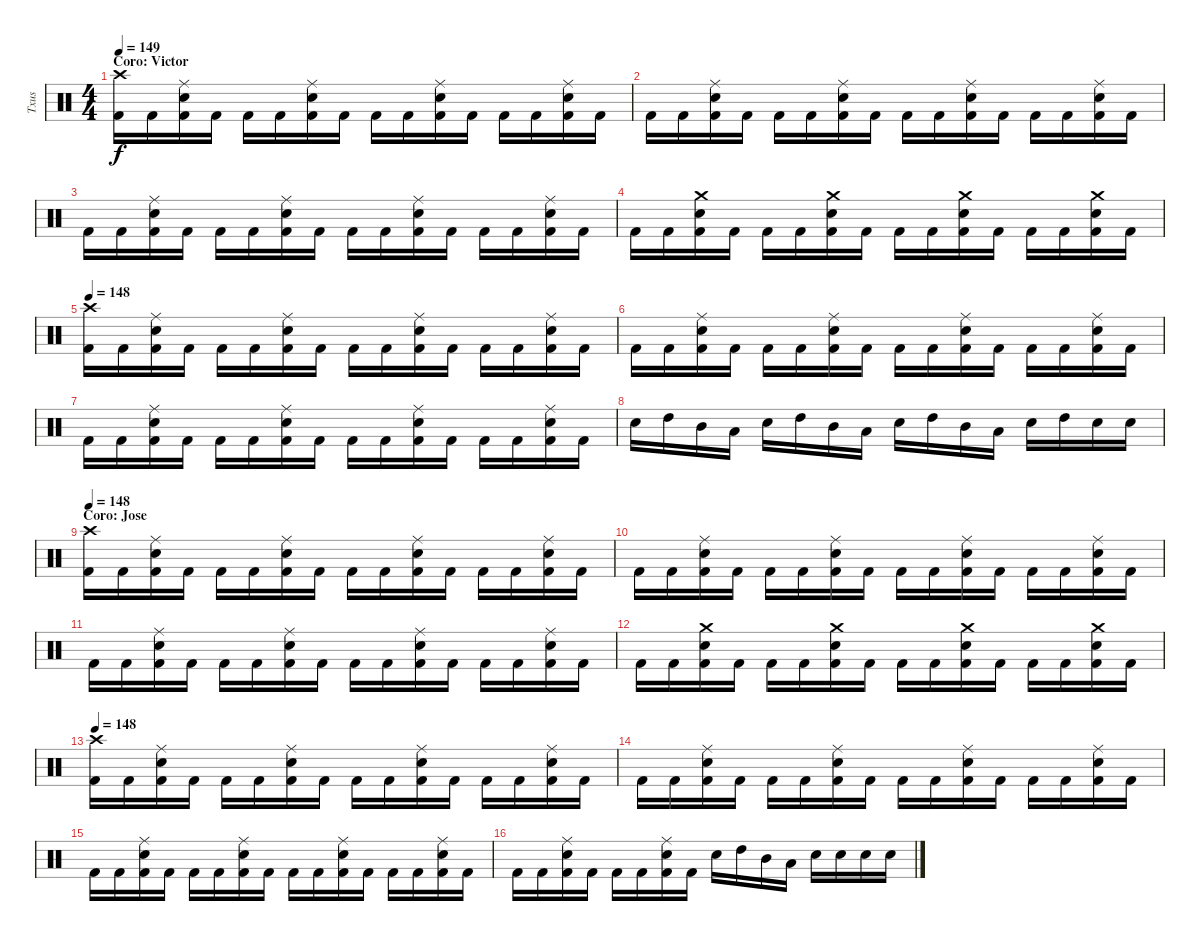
\track ("Txus" "Txus") {instrument percussion}
\staff {score}
\articulation defaults
\ts (4 4)
\section ("" "Coro: Victor")
\tempo 149
\clef neutral
\ks c
("Kick (hit) 2" "Crash high (hit)").16{dy f} "Kick (hit) 2".16 ("Kick (hit) 2" "Electric Snare (hit)" "Ride (middle)").16 "Kick (hit) 2".16 "Kick (hit) 2".16 "Kick (hit) 2".16 ("Kick (hit) 2" "Electric Snare (hit)" "Ride (middle)").16 "Kick (hit) 2".16 "Kick (hit) 2".16 "Kick (hit) 2".16 ("Kick (hit) 2" "Electric Snare (hit)" "Ride (middle)").16 "Kick (hit) 2".16 "Kick (hit) 2".16 "Kick (hit) 2".16 ("Kick (hit) 2" "Electric Snare (hit)" "Ride (middle)").16 "Kick (hit) 2".16 |
"Kick (hit) 2".16 "Kick (hit) 2".16 ("Kick (hit) 2" "Electric Snare (hit)" "Ride (middle)").16 "Kick (hit) 2".16 "Kick (hit) 2".16 "Kick (hit) 2".16 ("Kick (hit) 2" "Electric Snare (hit)" "Ride (middle)").16 "Kick (hit) 2".16 "Kick (hit) 2".16 "Kick (hit) 2".16 ("Kick (hit) 2" "Electric Snare (hit)" "Ride (middle)").16 "Kick (hit) 2".16 "Kick (hit) 2".16 "Kick (hit) 2".16 ("Kick (hit) 2" "Electric Snare (hit)" "Ride (middle)").16 "Kick (hit) 2".16 |
"Kick (hit) 2".16 "Kick (hit) 2".16 ("Kick (hit) 2" "Electric Snare (hit)" "Ride (middle)").16 "Kick (hit) 2".16 "Kick (hit) 2".16 "Kick (hit) 2".16 ("Kick (hit) 2" "Electric Snare (hit)" "Ride (middle)").16 "Kick (hit) 2".16 "Kick (hit) 2".16 "Kick (hit) 2".16 ("Kick (hit) 2" "Electric Snare (hit)" "Ride (middle)").16 "Kick (hit) 2".16 "Kick (hit) 2".16 "Kick (hit) 2".16 ("Kick (hit) 2" "Electric Snare (hit)" "Ride (middle)").16 "Kick (hit) 2".16 |
"Kick (hit) 2".16 "Kick (hit) 2".16 ("Kick (hit) 2" "Electric Snare (hit)" "Crash medium (hit)").16 "Kick (hit) 2".16 "Kick (hit) 2".16 "Kick (hit) 2".16 ("Kick (hit) 2" "Electric Snare (hit)" "Crash medium (hit)").16 "Kick (hit) 2".16 "Kick (hit) 2".16 "Kick (hit) 2".16 ("Kick (hit) 2" "Electric Snare (hit)" "Crash medium (hit)").16 "Kick (hit) 2".16 "Kick (hit) 2".16 "Kick (hit) 2".16 ("Kick (hit) 2" "Electric Snare (hit)" "Crash medium (hit)").16 "Kick (hit) 2".16 |
\tempo 148
("Kick (hit) 2" "Crash high (hit)").16 "Kick (hit) 2".16 ("Kick (hit) 2" "Electric Snare (hit)" "Ride (middle)").16 "Kick (hit) 2".16 "Kick (hit) 2".16 "Kick (hit) 2".16 ("Kick (hit) 2" "Electric Snare (hit)" "Ride (middle)").16 "Kick (hit) 2".16 "Kick (hit) 2".16 "Kick (hit) 2".16 ("Kick (hit) 2" "Electric Snare (hit)" "Ride (middle)").16 "Kick (hit) 2".16 "Kick (hit) 2".16 "Kick (hit) 2".16 ("Kick (hit) 2" "Electric Snare (hit)" "Ride (middle)").16 "Kick (hit) 2".16 |
"Kick (hit) 2".16 "Kick (hit) 2".16 ("Kick (hit) 2" "Electric Snare (hit)" "Ride (middle)").16 "Kick (hit) 2".16 "Kick (hit) 2".16 "Kick (hit) 2".16 ("Kick (hit) 2" "Electric Snare (hit)" "Ride (middle)").16 "Kick (hit) 2".16 "Kick (hit) 2".16 "Kick (hit) 2".16 ("Kick (hit) 2" "Electric Snare (hit)" "Ride (middle)").16 "Kick (hit) 2".16 "Kick (hit) 2".16 "Kick (hit) 2".16 ("Kick (hit) 2" "Electric Snare (hit)" "Ride (middle)").16 "Kick (hit) 2".16 |
"Kick (hit) 2".16 "Kick (hit) 2".16 ("Kick (hit) 2" "Electric Snare (hit)" "Ride (middle)").16 "Kick (hit) 2".16 "Kick (hit) 2".16 "Kick (hit) 2".16 ("Kick (hit) 2" "Electric Snare (hit)" "Ride (middle)").16 "Kick (hit) 2".16 "Kick (hit) 2".16 "Kick (hit) 2".16 ("Kick (hit) 2" "Electric Snare (hit)" "Ride (middle)").16 "Kick (hit) 2".16 "Kick (hit) 2".16 "Kick (hit) 2".16 ("Kick (hit) 2" "Electric Snare (hit)" "Ride (middle)").16 "Kick (hit) 2".16 |
"Electric Snare (hit)".16 "High Tom (hit)".16 "Mid Tom (hit)".16 "Low Tom (hit)".16 "Electric Snare (hit)".16 "High Tom (hit)".16 "Mid Tom (hit)".16 "Low Tom (hit)".16 "Electric Snare (hit)".16 "High Tom (hit)".16 "Mid Tom (hit)".16 "Low Tom (hit)".16 "Electric Snare (hit)".16 "High Tom (hit)".16 "Electric Snare (hit)".16 "Electric Snare (hit)".16 |
\section ("" "Coro: Jose")
\tempo 148
("Kick (hit) 2" "Crash high (hit)").16 "Kick (hit) 2".16 ("Kick (hit) 2" "Electric Snare (hit)" "Ride (middle)").16 "Kick (hit) 2".16 "Kick (hit) 2".16 "Kick (hit) 2".16 ("Kick (hit) 2" "Electric Snare (hit)" "Ride (middle)").16 "Kick (hit) 2".16 "Kick (hit) 2".16 "Kick (hit) 2".16 ("Kick (hit) 2" "Electric Snare (hit)" "Ride (middle)").16 "Kick (hit) 2".16 "Kick (hit) 2".16 "Kick (hit) 2".16 ("Kick (hit) 2" "Electric Snare (hit)" "Ride (middle)").16 "Kick (hit) 2".16 |
"Kick (hit) 2".16 "Kick (hit) 2".16 ("Kick (hit) 2" "Electric Snare (hit)" "Ride (middle)").16 "Kick (hit) 2".16 "Kick (hit) 2".16 "Kick (hit) 2".16 ("Kick (hit) 2" "Electric Snare (hit)" "Ride (middle)").16 "Kick (hit) 2".16 "Kick (hit) 2".16 "Kick (hit) 2".16 ("Kick (hit) 2" "Electric Snare (hit)" "Ride (middle)").16 "Kick (hit) 2".16 "Kick (hit) 2".16 "Kick (hit) 2".16 ("Kick (hit) 2" "Electric Snare (hit)" "Ride (middle)").16 "Kick (hit) 2".16 |
"Kick (hit) 2".16 "Kick (hit) 2".16 ("Kick (hit) 2" "Electric Snare (hit)" "Ride (middle)").16 "Kick (hit) 2".16 "Kick (hit) 2".16 "Kick (hit) 2".16 ("Kick (hit) 2" "Electric Snare (hit)" "Ride (middle)").16 "Kick (hit) 2".16 "Kick (hit) 2".16 "Kick (hit) 2".16 ("Kick (hit) 2" "Electric Snare (hit)" "Ride (middle)").16 "Kick (hit) 2".16 "Kick (hit) 2".16 "Kick (hit) 2".16 ("Kick (hit) 2" "Electric Snare (hit)" "Ride (middle)").16 "Kick (hit) 2".16 |
"Kick (hit) 2".16 "Kick (hit) 2".16 ("Kick (hit) 2" "Electric Snare (hit)" "Crash medium (hit)").16 "Kick (hit) 2".16 "Kick (hit) 2".16 "Kick (hit) 2".16 ("Kick (hit) 2" "Electric Snare (hit)" "Crash medium (hit)").16 "Kick (hit) 2".16 "Kick (hit) 2".16 "Kick (hit) 2".16 ("Kick (hit) 2" "Electric Snare (hit)" "Crash medium (hit)").16 "Kick (hit) 2".16 "Kick (hit) 2".16 "Kick (hit) 2".16 ("Kick (hit) 2" "Electric Snare (hit)" "Crash medium (hit)").16 "Kick (hit) 2".16 |
\tempo 148
("Kick (hit) 2" "Crash high (hit)").16 "Kick (hit) 2".16 ("Kick (hit) 2" "Electric Snare (hit)" "Ride (middle)").16 "Kick (hit) 2".16 "Kick (hit) 2".16 "Kick (hit) 2".16 ("Kick (hit) 2" "Electric Snare (hit)" "Ride (middle)").16 "Kick (hit) 2".16 "Kick (hit) 2".16 "Kick (hit) 2".16 ("Kick (hit) 2" "Electric Snare (hit)" "Ride (middle)").16 "Kick (hit) 2".16 "Kick (hit) 2".16 "Kick (hit) 2".16 ("Kick (hit) 2" "Electric Snare (hit)" "Ride (middle)").16 "Kick (hit) 2".16 |
"Kick (hit) 2".16 "Kick (hit) 2".16 ("Kick (hit) 2" "Electric Snare (hit)" "Ride (middle)").16 "Kick (hit) 2".16 "Kick (hit) 2".16 "Kick (hit) 2".16 ("Kick (hit) 2" "Electric Snare (hit)" "Ride (middle)").16 "Kick (hit) 2".16 "Kick (hit) 2".16 "Kick (hit) 2".16 ("Kick (hit) 2" "Electric Snare (hit)" "Ride (middle)").16 "Kick (hit) 2".16 "Kick (hit) 2".16 "Kick (hit) 2".16 ("Kick (hit) 2" "Electric Snare (hit)" "Ride (middle)").16 "Kick (hit) 2".16 |
"Kick (hit) 2".16 "Kick (hit) 2".16 ("Kick (hit) 2" "Electric Snare (hit)" "Ride (middle)").16 "Kick (hit) 2".16 "Kick (hit) 2".16 "Kick (hit) 2".16 ("Kick (hit) 2" "Electric Snare (hit)" "Ride (middle)").16 "Kick (hit) 2".16 "Kick (hit) 2".16 "Kick (hit) 2".16 ("Kick (hit) 2" "Electric Snare (hit)" "Ride (middle)").16 "Kick (hit) 2".16 "Kick (hit) 2".16 "Kick (hit) 2".16 ("Kick (hit) 2" "Electric Snare (hit)" "Ride (middle)").16 "Kick (hit) 2".16 |
"Kick (hit) 2".16 "Kick (hit) 2".16 ("Kick (hit) 2" "Electric Snare (hit)" "Ride (middle)").16 "Kick (hit) 2".16 "Kick (hit) 2".16 "Kick (hit) 2".16 ("Kick (hit) 2" "Electric Snare (hit)" "Ride (middle)").16 "Kick (hit) 2".16 "Electric Snare (hit)".16 "High Tom (hit)".16 "Mid Tom (hit)".16 "Low Tom (hit)".16 "Electric Snare (hit)".16 "Electric Snare (hit)".16 "Electric Snare (hit)".16 "Electric Snare (hit)".16
